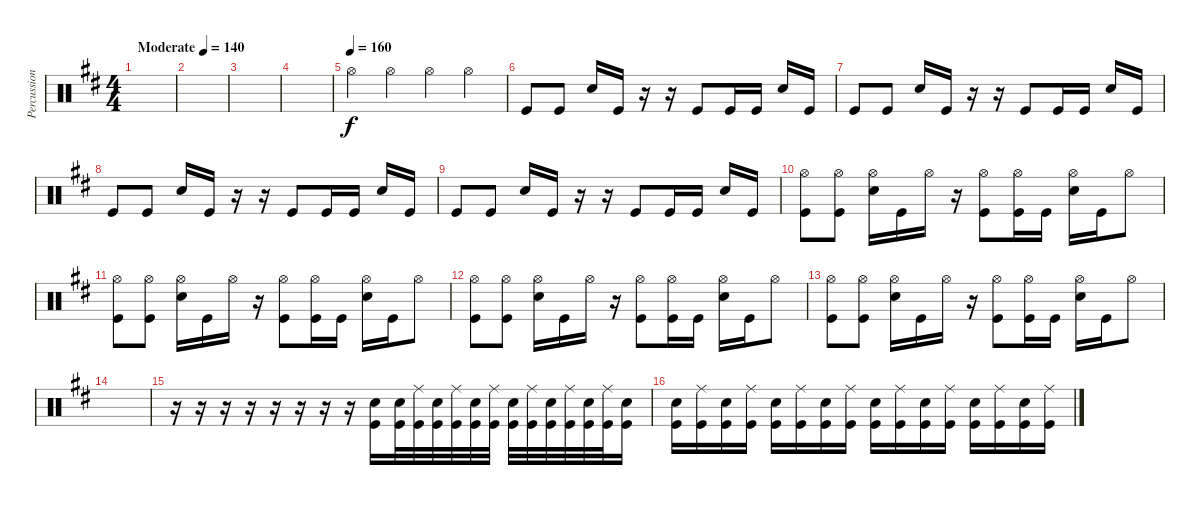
\track ("Percussion" "Percussion") {instrument percussion}
\staff {score}
\articulation defaults
\ts (4 4)
\tempo (140 "Moderate")
\clef neutral
\ks bminor
|
|
|
|
\tempo (160)
"Hi-Hat (open)".4 "Hi-Hat (open)".4 "Hi-Hat (open)".4 "Hi-Hat (open)".4 |
"Kick (hit)".8 "Kick (hit)".8 "Snare (hit) 2".16 "Kick (hit)".16 r.16 r.16 "Kick (hit)".8 "Kick (hit)".16 "Kick (hit)".16 "Snare (hit) 2".16 "Kick (hit)".16 |
"Kick (hit)".8 "Kick (hit)".8 "Snare (hit) 2".16 "Kick (hit)".16 r.16 r.16 "Kick (hit)".8 "Kick (hit)".16 "Kick (hit)".16 "Snare (hit) 2".16 "Kick (hit)".16 |
"Kick (hit)".8 "Kick (hit)".8 "Snare (hit) 2".16 "Kick (hit)".16 r.16 r.16 "Kick (hit)".8 "Kick (hit)".16 "Kick (hit)".16 "Snare (hit) 2".16 "Kick (hit)".16 |
"Kick (hit)".8 "Kick (hit)".8 "Snare (hit) 2".16 "Kick (hit)".16 r.16 r.16 "Kick (hit)".8 "Kick (hit)".16 "Kick (hit)".16 "Snare (hit) 2".16 "Kick (hit)".16 |
("Hi-Hat (open)" "Kick (hit)").8 ("Hi-Hat (open)" "Kick (hit)").8 ("Hi-Hat (open)" "Snare (hit) 2").16 "Kick (hit)".16 "Hi-Hat (open)".16 r.16 ("Hi-Hat (open)" "Kick (hit)").8 ("Hi-Hat (open)" "Kick (hit)").16 "Kick (hit)".16 ("Hi-Hat (open)" "Snare (hit) 2").16 "Kick (hit)".16 "Hi-Hat (open)".8 |
("Hi-Hat (open)" "Kick (hit)").8 ("Hi-Hat (open)" "Kick (hit)").8 ("Hi-Hat (open)" "Snare (hit) 2").16 "Kick (hit)".16 "Hi-Hat (open)".16 r.16 ("Hi-Hat (open)" "Kick (hit)").8 ("Hi-Hat (open)" "Kick (hit)").16 "Kick (hit)".16 ("Hi-Hat (open)" "Snare (hit) 2").16 "Kick (hit)".16 "Hi-Hat (open)".8 |
("Hi-Hat (open)" "Kick (hit)").8 ("Hi-Hat (open)" "Kick (hit)").8 ("Hi-Hat (open)" "Snare (hit) 2").16 "Kick (hit)".16 "Hi-Hat (open)".16 r.16 ("Hi-Hat (open)" "Kick (hit)").8 ("Hi-Hat (open)" "Kick (hit)").16 "Kick (hit)".16 ("Hi-Hat (open)" "Snare (hit) 2").16 "Kick (hit)".16 "Hi-Hat (open)".8 |
("Hi-Hat (open)" "Kick (hit)").8 ("Hi-Hat (open)" "Kick (hit)").8 ("Hi-Hat (open)" "Snare (hit) 2").16 "Kick (hit)".16 "Hi-Hat (open)".16 r.16 ("Hi-Hat (open)" "Kick (hit)").8 ("Hi-Hat (open)" "Kick (hit)").16 "Kick (hit)".16 ("Hi-Hat (open)" "Snare (hit) 2").16 "Kick (hit)".16 "Hi-Hat (open)".8 |
|
r.16 r.16 r.16 r.16 r.16 r.16 r.16 r.16 ("Snare (hit) 2" "Kick (hit)").16 ("Snare (hit) 2" "Kick (hit)").32 ("Ride (middle)" "Kick (hit)").32 ("Snare (hit) 2" "Kick (hit)").32 ("Ride (middle)" "Kick (hit)").32 ("Snare (hit) 2" "Kick (hit)").32 ("Ride (middle)" "Kick (hit)").32 ("Snare (hit) 2" "Kick (hit)").32 ("Ride (middle)" "Kick (hit)").32 ("Snare (hit) 2" "Kick (hit)").32 ("Ride (middle)" "Kick (hit)").32 ("Snare (hit) 2" "Kick (hit)").32 ("Ride (middle)" "Kick (hit)").32 ("Snare (hit) 2" "Kick (hit)").16 |
("Snare (hit) 2" "Kick (hit)").16 ("Ride (middle)" "Kick (hit)").16 ("Snare (hit) 2" "Kick (hit)").16 ("Ride (middle)" "Kick (hit)").16 ("Snare (hit) 2" "Kick (hit)").16 ("Ride (middle)" "Kick (hit)").16 ("Snare (hit) 2" "Kick (hit)").16 ("Ride (middle)" "Kick (hit)").16 ("Snare (hit) 2" "Kick (hit)").16 ("Ride (middle)" "Kick (hit)").16 ("Snare (hit) 2" "Kick (hit)").16 ("Ride (middle)" "Kick (hit)").16 ("Snare (hit) 2" "Kick (hit)").16 ("Ride (middle)" "Kick (hit)").16 ("Snare (hit) 2" "Kick (hit)").16 ("Ride (middle)" "Kick (hit)").16
